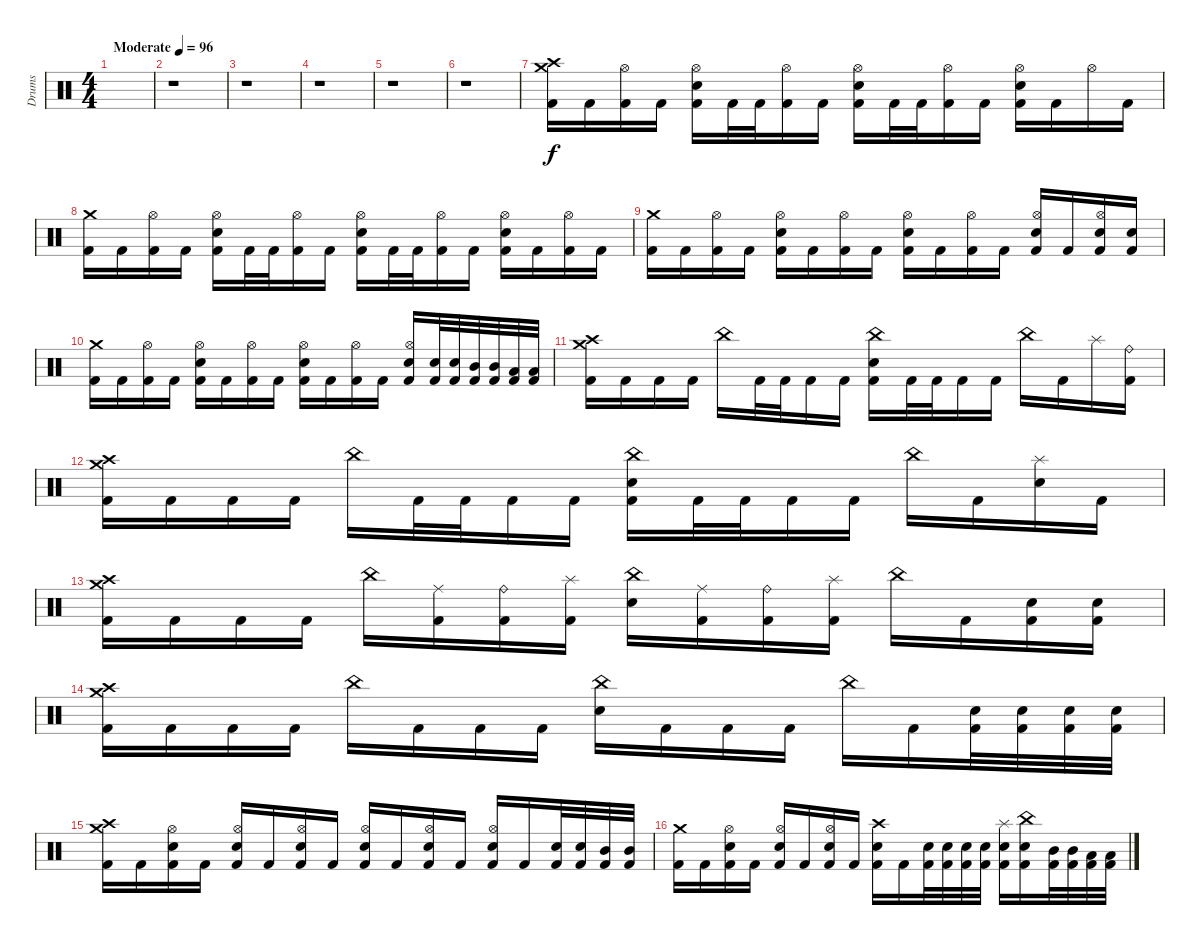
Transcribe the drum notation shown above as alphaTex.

\track ("Drums" "Drums") {instrument percussion}
\staff {score}
\articulation defaults
\ts (4 4)
\tempo (96 "Moderate")
\clef neutral
\ks c
|
r.1 |
r.1 |
r.1 |
r.1 |
r.1 |
("Crash high (hit)" "Crash medium (hit)" "Kick (hit) 2").16 "Kick (hit) 2".16 ("Hi-Hat (open)" "Kick (hit) 2").16 "Kick (hit) 2".16 ("Hi-Hat (open)" "Electric Snare (hit)" "Kick (hit) 2").16 "Kick (hit) 2".32 "Kick (hit) 2".32 ("Hi-Hat (open)" "Kick (hit) 2").16 "Kick (hit) 2".16 ("Hi-Hat (open)" "Electric Snare (hit)" "Kick (hit) 2").16 "Kick (hit) 2".32 "Kick (hit) 2".32 ("Hi-Hat (open)" "Kick (hit) 2").16 "Kick (hit) 2".16 ("Hi-Hat (open)" "Electric Snare (hit)" "Kick (hit) 2").16 "Kick (hit) 2".16 "Hi-Hat (open)".16 "Kick (hit) 2".16 |
("Crash medium (hit)" "Kick (hit) 2").16 "Kick (hit) 2".16 ("Hi-Hat (open)" "Kick (hit) 2").16 "Kick (hit) 2".16 ("Hi-Hat (open)" "Electric Snare (hit)" "Kick (hit) 2").16 "Kick (hit) 2".32 "Kick (hit) 2".32 ("Hi-Hat (open)" "Kick (hit) 2").16 "Kick (hit) 2".16 ("Hi-Hat (open)" "Electric Snare (hit)" "Kick (hit) 2").16 "Kick (hit) 2".32 "Kick (hit) 2".32 ("Hi-Hat (open)" "Kick (hit) 2").16 "Kick (hit) 2".16 ("Hi-Hat (open)" "Electric Snare (hit)" "Kick (hit) 2").16 "Kick (hit) 2".16 ("Hi-Hat (open)" "Kick (hit) 2").16 "Kick (hit) 2".16 |
("Crash medium (hit)" "Kick (hit) 2").16 "Kick (hit) 2".16 ("Hi-Hat (open)" "Kick (hit) 2").16 "Kick (hit) 2".16 ("Hi-Hat (open)" "Electric Snare (hit)" "Kick (hit) 2").16 "Kick (hit) 2".16 ("Hi-Hat (open)" "Kick (hit) 2").16 "Kick (hit) 2".16 ("Hi-Hat (open)" "Electric Snare (hit)" "Kick (hit) 2").16 "Kick (hit) 2".16 ("Hi-Hat (open)" "Kick (hit) 2").16 "Kick (hit) 2".16 ("Hi-Hat (open)" "Electric Snare (hit)" "Kick (hit) 2").16 "Kick (hit) 2".16 ("Hi-Hat (open)" "Electric Snare (hit)" "Kick (hit) 2").16 ("Electric Snare (hit)" "Kick (hit) 2").16 |
("Crash medium (hit)" "Kick (hit) 2").16 "Kick (hit) 2".16 ("Hi-Hat (open)" "Kick (hit) 2").16 "Kick (hit) 2".16 ("Hi-Hat (open)" "Electric Snare (hit)" "Kick (hit) 2").16 "Kick (hit) 2".16 ("Hi-Hat (open)" "Kick (hit) 2").16 "Kick (hit) 2".16 ("Hi-Hat (open)" "Electric Snare (hit)" "Kick (hit) 2").16 "Kick (hit) 2".16 ("Hi-Hat (open)" "Kick (hit) 2").16 "Kick (hit) 2".16 ("Hi-Hat (open)" "Electric Snare (hit)" "Kick (hit) 2").16 ("Electric Snare (hit)" "Kick (hit) 2").32 ("Electric Snare (hit)" "Kick (hit) 2").32 ("Mid Tom (hit)" "Kick (hit) 2").32 ("Mid Tom (hit)" "Kick (hit) 2").32 ("Low Tom (hit)" "Kick (hit) 2").32 ("Low Tom (hit)" "Kick (hit) 2").32 |
("Crash medium (hit)" "Crash high (hit)" "Kick (hit) 2").16 "Kick (hit) 2".16 "Kick (hit) 2".16 "Kick (hit) 2".16 "China (hit)".16 "Kick (hit) 2".32 "Kick (hit) 2".32 "Kick (hit) 2".16 "Kick (hit) 2".16 ("China (hit)" "Electric Snare (hit)" "Kick (hit) 2").16 "Kick (hit) 2".32 "Kick (hit) 2".32 "Kick (hit) 2".16 "Kick (hit) 2".16 "China (hit)".16 "Kick (hit) 2".16 "Splash (hit)".16 ("Ride (bell)" "Kick (hit) 2").16 |
("Crash medium (hit)" "Crash high (hit)" "Kick (hit) 2").16 "Kick (hit) 2".16 "Kick (hit) 2".16 "Kick (hit) 2".16 "China (hit)".16 "Kick (hit) 2".32 "Kick (hit) 2".32 "Kick (hit) 2".16 "Kick (hit) 2".16 ("China (hit)" "Electric Snare (hit)" "Kick (hit) 2").16 "Kick (hit) 2".32 "Kick (hit) 2".32 "Kick (hit) 2".16 "Kick (hit) 2".16 "China (hit)".16 "Kick (hit) 2".16 ("Splash (hit)" "Electric Snare (hit)").16 "Kick (hit) 2".16 |
("Crash high (hit)" "Crash medium (hit)" "Kick (hit) 2").16 "Kick (hit) 2".16 "Kick (hit) 2".16 "Kick (hit) 2".16 "China (hit)".16 ("Ride (middle)" "Kick (hit) 2").16 ("Ride (bell)" "Kick (hit) 2").16 ("Splash (hit)" "Kick (hit) 2").16 ("China (hit)" "Electric Snare (hit)").16 ("Ride (middle)" "Kick (hit) 2").16 ("Ride (bell)" "Kick (hit) 2").16 ("Splash (hit)" "Kick (hit) 2").16 "China (hit)".16 "Kick (hit) 2".16 ("Electric Snare (hit)" "Kick (hit) 2").16 ("Electric Snare (hit)" "Kick (hit) 2").16 |
("Crash high (hit)" "Crash medium (hit)" "Kick (hit) 2").16 "Kick (hit) 2".16 "Kick (hit) 2".16 "Kick (hit) 2".16 "China (hit)".16 "Kick (hit) 2".16 "Kick (hit) 2".16 "Kick (hit) 2".16 ("China (hit)" "Electric Snare (hit)").16 "Kick (hit) 2".16 "Kick (hit) 2".16 "Kick (hit) 2".16 "China (hit)".16 "Kick (hit) 2".16 ("Electric Snare (hit)" "Kick (hit) 2").32 ("Electric Snare (hit)" "Kick (hit) 2").32 ("Electric Snare (hit)" "Kick (hit) 2").32 ("Electric Snare (hit)" "Kick (hit) 2").32 |
("Crash high (hit)" "Crash medium (hit)" "Kick (hit) 2").16 "Kick (hit) 2".16 ("Hi-Hat (open)" "Electric Snare (hit)" "Kick (hit) 2").16 "Kick (hit) 2".16 ("Hi-Hat (open)" "Electric Snare (hit)" "Kick (hit) 2").16 "Kick (hit) 2".16 ("Hi-Hat (open)" "Electric Snare (hit)" "Kick (hit) 2").16 "Kick (hit) 2".16 ("Hi-Hat (open)" "Electric Snare (hit)" "Kick (hit) 2").16 "Kick (hit) 2".16 ("Hi-Hat (open)" "Electric Snare (hit)" "Kick (hit) 2").16 "Kick (hit) 2".16 ("Hi-Hat (open)" "Electric Snare (hit)" "Kick (hit) 2").16 "Kick (hit) 2".16 ("Electric Snare (hit)" "Kick (hit) 2").32 ("Electric Snare (hit)" "Kick (hit) 2").32 ("Mid Tom (hit)" "Kick (hit) 2").32 ("Mid Tom (hit)" "Kick (hit) 2").32 |
("Crash medium (hit)" "Kick (hit) 2").16 "Kick (hit) 2".16 ("Hi-Hat (open)" "Electric Snare (hit)" "Kick (hit) 2").16 "Kick (hit) 2".16 ("Hi-Hat (open)" "Electric Snare (hit)" "Kick (hit) 2").16 "Kick (hit) 2".16 ("Hi-Hat (open)" "Electric Snare (hit)" "Kick (hit) 2").16 "Kick (hit) 2".16 ("Crash high (hit)" "Electric Snare (hit)" "Kick (hit) 2").16 "Kick (hit) 2".16 ("Electric Snare (hit)" "Kick (hit) 2").32 ("Electric Snare (hit)" "Kick (hit) 2").32 ("Electric Snare (hit)" "Kick (hit) 2").32 ("Electric Snare (hit)" "Kick (hit) 2").32 ("Splash (hit)" "Electric Snare (hit)" "Kick (hit) 2").16 ("China (hit)" "Electric Snare (hit)" "Kick (hit) 2").16 ("Mid Tom (hit)" "Kick (hit) 2").32 ("Mid Tom (hit)" "Kick (hit) 2").32 ("Low Tom (hit)" "Kick (hit) 2").32 ("Low Tom (hit)" "Kick (hit) 2").32
